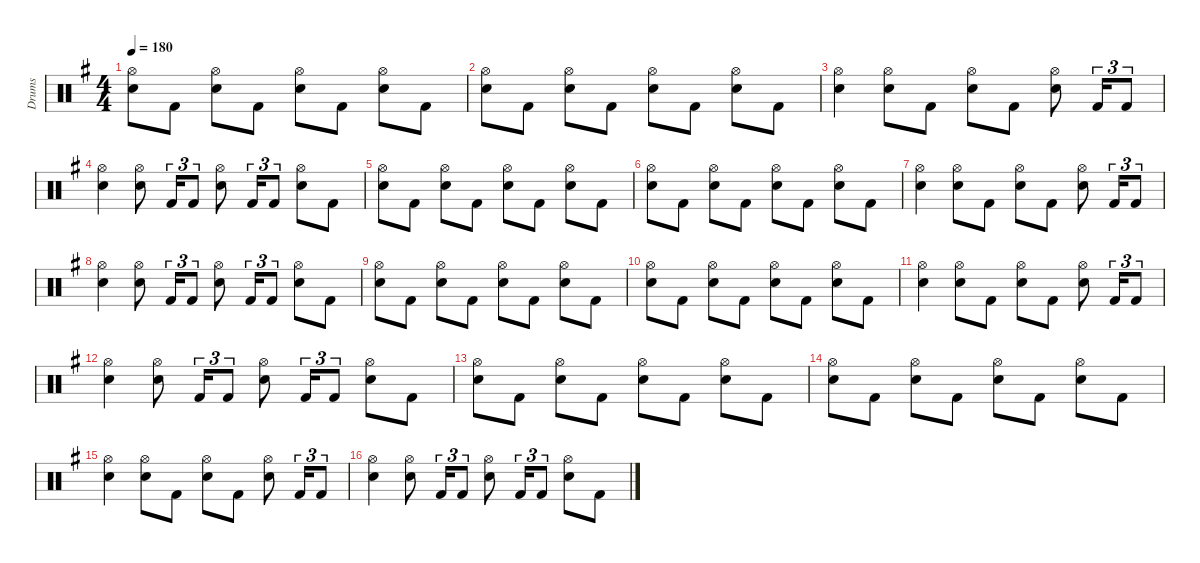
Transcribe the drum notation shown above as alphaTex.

\defaultSystemsLayout 4
\hideDynamics
\bracketExtendMode nobrackets
\firstSystemTrackNameMode fullname
\otherSystemsTrackNameOrientation horizontal
\track ("Drums" "drm.") {instrument percussion}
\staff {score}
\articulation defaults
\ts (4 4)
\tempo 180
\clef neutral
\ks g
("Hi-Hat (open)"{acc forcenatural} "Snare (hit) 2"{acc forcenatural}).8{dy f beam Down} "Kick (hit) 2"{acc forcenatural}.8{beam Down} ("Hi-Hat (open)"{acc forcenatural} "Snare (hit) 2"{acc forcenatural}).8{beam Down} "Kick (hit) 2"{acc forcenatural}.8{beam Down} ("Hi-Hat (open)"{acc forcenatural} "Snare (hit) 2"{acc forcenatural}).8{beam Down} "Kick (hit) 2"{acc forcenatural}.8{beam Down} ("Hi-Hat (open)"{acc forcenatural} "Snare (hit) 2"{acc forcenatural}).8{beam Down} "Kick (hit) 2"{acc forcenatural}.8{beam Down} |
("Hi-Hat (open)"{acc forcenatural} "Snare (hit) 2"{acc forcenatural}).8{beam Down} "Kick (hit) 2"{acc forcenatural}.8{beam Down} ("Hi-Hat (open)"{acc forcenatural} "Snare (hit) 2"{acc forcenatural}).8{beam Down} "Kick (hit) 2"{acc forcenatural}.8{beam Down} ("Hi-Hat (open)"{acc forcenatural} "Snare (hit) 2"{acc forcenatural}).8{beam Down} "Kick (hit) 2"{acc forcenatural}.8{beam Down} ("Hi-Hat (open)"{acc forcenatural} "Snare (hit) 2"{acc forcenatural}).8{beam Down} "Kick (hit) 2"{acc forcenatural}.8{beam Down} |
("Hi-Hat (open)"{acc forcenatural} "Snare (hit) 2"{acc forcenatural}).4{beam Down} ("Hi-Hat (open)"{acc forcenatural} "Snare (hit) 2"{acc forcenatural}).8{beam Down} "Kick (hit) 2"{acc forcenatural}.8{beam Down} ("Hi-Hat (open)"{acc forcenatural} "Snare (hit) 2"{acc forcenatural}).8{beam Down} "Kick (hit) 2"{acc forcenatural}.8{beam Down} ("Hi-Hat (open)"{acc forcenatural} "Snare (hit) 2"{acc forcenatural}).8{beam Down} "Kick (hit) 2"{acc forcenatural}.16{tu (3 2) beam Up} "Kick (hit) 2"{acc forcenatural}.8{tu (3 2) beam Up} |
("Hi-Hat (open)"{acc forcenatural} "Snare (hit) 2"{acc forcenatural}).4{beam Down} ("Hi-Hat (open)"{acc forcenatural} "Snare (hit) 2"{acc forcenatural}).8{beam Down} "Kick (hit) 2"{acc forcenatural}.16{tu (3 2) beam Up} "Kick (hit) 2"{acc forcenatural}.8{tu (3 2) beam Up} ("Hi-Hat (open)"{acc forcenatural} "Snare (hit) 2"{acc forcenatural}).8{beam Down} "Kick (hit) 2"{acc forcenatural}.16{tu (3 2) beam Up} "Kick (hit) 2"{acc forcenatural}.8{tu (3 2) beam Up} ("Hi-Hat (open)"{acc forcenatural} "Snare (hit) 2"{acc forcenatural}).8{beam Down} "Kick (hit) 2"{acc forcenatural}.8{beam Down} |
("Hi-Hat (open)"{acc forcenatural} "Snare (hit) 2"{acc forcenatural}).8{beam Down} "Kick (hit) 2"{acc forcenatural}.8{beam Down} ("Hi-Hat (open)"{acc forcenatural} "Snare (hit) 2"{acc forcenatural}).8{beam Down} "Kick (hit) 2"{acc forcenatural}.8{beam Down} ("Hi-Hat (open)"{acc forcenatural} "Snare (hit) 2"{acc forcenatural}).8{beam Down} "Kick (hit) 2"{acc forcenatural}.8{beam Down} ("Hi-Hat (open)"{acc forcenatural} "Snare (hit) 2"{acc forcenatural}).8{beam Down} "Kick (hit) 2"{acc forcenatural}.8{beam Down} |
("Hi-Hat (open)"{acc forcenatural} "Snare (hit) 2"{acc forcenatural}).8{beam Down} "Kick (hit) 2"{acc forcenatural}.8{beam Down} ("Hi-Hat (open)"{acc forcenatural} "Snare (hit) 2"{acc forcenatural}).8{beam Down} "Kick (hit) 2"{acc forcenatural}.8{beam Down} ("Hi-Hat (open)"{acc forcenatural} "Snare (hit) 2"{acc forcenatural}).8{beam Down} "Kick (hit) 2"{acc forcenatural}.8{beam Down} ("Hi-Hat (open)"{acc forcenatural} "Snare (hit) 2"{acc forcenatural}).8{beam Down} "Kick (hit) 2"{acc forcenatural}.8{beam Down} |
("Hi-Hat (open)"{acc forcenatural} "Snare (hit) 2"{acc forcenatural}).4{beam Down} ("Hi-Hat (open)"{acc forcenatural} "Snare (hit) 2"{acc forcenatural}).8{beam Down} "Kick (hit) 2"{acc forcenatural}.8{beam Down} ("Hi-Hat (open)"{acc forcenatural} "Snare (hit) 2"{acc forcenatural}).8{beam Down} "Kick (hit) 2"{acc forcenatural}.8{beam Down} ("Hi-Hat (open)"{acc forcenatural} "Snare (hit) 2"{acc forcenatural}).8{beam Down} "Kick (hit) 2"{acc forcenatural}.16{tu (3 2) beam Up} "Kick (hit) 2"{acc forcenatural}.8{tu (3 2) beam Up} |
("Hi-Hat (open)"{acc forcenatural} "Snare (hit) 2"{acc forcenatural}).4{beam Down} ("Hi-Hat (open)"{acc forcenatural} "Snare (hit) 2"{acc forcenatural}).8{beam Down} "Kick (hit) 2"{acc forcenatural}.16{tu (3 2) beam Up} "Kick (hit) 2"{acc forcenatural}.8{tu (3 2) beam Up} ("Hi-Hat (open)"{acc forcenatural} "Snare (hit) 2"{acc forcenatural}).8{beam Down} "Kick (hit) 2"{acc forcenatural}.16{tu (3 2) beam Up} "Kick (hit) 2"{acc forcenatural}.8{tu (3 2) beam Up} ("Hi-Hat (open)"{acc forcenatural} "Snare (hit) 2"{acc forcenatural}).8{beam Down} "Kick (hit) 2"{acc forcenatural}.8{beam Down} |
("Hi-Hat (open)"{acc forcenatural} "Snare (hit) 2"{acc forcenatural}).8{beam Down} "Kick (hit) 2"{acc forcenatural}.8{beam Down} ("Hi-Hat (open)"{acc forcenatural} "Snare (hit) 2"{acc forcenatural}).8{beam Down} "Kick (hit) 2"{acc forcenatural}.8{beam Down} ("Hi-Hat (open)"{acc forcenatural} "Snare (hit) 2"{acc forcenatural}).8{beam Down} "Kick (hit) 2"{acc forcenatural}.8{beam Down} ("Hi-Hat (open)"{acc forcenatural} "Snare (hit) 2"{acc forcenatural}).8{beam Down} "Kick (hit) 2"{acc forcenatural}.8{beam Down} |
("Hi-Hat (open)"{acc forcenatural} "Snare (hit) 2"{acc forcenatural}).8{beam Down} "Kick (hit) 2"{acc forcenatural}.8{beam Down} ("Hi-Hat (open)"{acc forcenatural} "Snare (hit) 2"{acc forcenatural}).8{beam Down} "Kick (hit) 2"{acc forcenatural}.8{beam Down} ("Hi-Hat (open)"{acc forcenatural} "Snare (hit) 2"{acc forcenatural}).8{beam Down} "Kick (hit) 2"{acc forcenatural}.8{beam Down} ("Hi-Hat (open)"{acc forcenatural} "Snare (hit) 2"{acc forcenatural}).8{beam Down} "Kick (hit) 2"{acc forcenatural}.8{beam Down} |
("Hi-Hat (open)"{acc forcenatural} "Snare (hit) 2"{acc forcenatural}).4{beam Down} ("Hi-Hat (open)"{acc forcenatural} "Snare (hit) 2"{acc forcenatural}).8{beam Down} "Kick (hit) 2"{acc forcenatural}.8{beam Down} ("Hi-Hat (open)"{acc forcenatural} "Snare (hit) 2"{acc forcenatural}).8{beam Down} "Kick (hit) 2"{acc forcenatural}.8{beam Down} ("Hi-Hat (open)"{acc forcenatural} "Snare (hit) 2"{acc forcenatural}).8{beam Down} "Kick (hit) 2"{acc forcenatural}.16{tu (3 2) beam Up} "Kick (hit) 2"{acc forcenatural}.8{tu (3 2) beam Up} |
("Hi-Hat (open)"{acc forcenatural} "Snare (hit) 2"{acc forcenatural}).4{beam Down} ("Hi-Hat (open)"{acc forcenatural} "Snare (hit) 2"{acc forcenatural}).8{beam Down} "Kick (hit) 2"{acc forcenatural}.16{tu (3 2) beam Up} "Kick (hit) 2"{acc forcenatural}.8{tu (3 2) beam Up} ("Hi-Hat (open)"{acc forcenatural} "Snare (hit) 2"{acc forcenatural}).8{beam Down} "Kick (hit) 2"{acc forcenatural}.16{tu (3 2) beam Up} "Kick (hit) 2"{acc forcenatural}.8{tu (3 2) beam Up} ("Hi-Hat (open)"{acc forcenatural} "Snare (hit) 2"{acc forcenatural}).8{beam Down} "Kick (hit) 2"{acc forcenatural}.8{beam Down} |
("Hi-Hat (open)"{acc forcenatural} "Snare (hit) 2"{acc forcenatural}).8{beam Down} "Kick (hit) 2"{acc forcenatural}.8{beam Down} ("Hi-Hat (open)"{acc forcenatural} "Snare (hit) 2"{acc forcenatural}).8{beam Down} "Kick (hit) 2"{acc forcenatural}.8{beam Down} ("Hi-Hat (open)"{acc forcenatural} "Snare (hit) 2"{acc forcenatural}).8{beam Down} "Kick (hit) 2"{acc forcenatural}.8{beam Down} ("Hi-Hat (open)"{acc forcenatural} "Snare (hit) 2"{acc forcenatural}).8{beam Down} "Kick (hit) 2"{acc forcenatural}.8{beam Down} |
("Hi-Hat (open)"{acc forcenatural} "Snare (hit) 2"{acc forcenatural}).8{beam Down} "Kick (hit) 2"{acc forcenatural}.8{beam Down} ("Hi-Hat (open)"{acc forcenatural} "Snare (hit) 2"{acc forcenatural}).8{beam Down} "Kick (hit) 2"{acc forcenatural}.8{beam Down} ("Hi-Hat (open)"{acc forcenatural} "Snare (hit) 2"{acc forcenatural}).8{beam Down} "Kick (hit) 2"{acc forcenatural}.8{beam Down} ("Hi-Hat (open)"{acc forcenatural} "Snare (hit) 2"{acc forcenatural}).8{beam Down} "Kick (hit) 2"{acc forcenatural}.8{beam Down} |
("Hi-Hat (open)"{acc forcenatural} "Snare (hit) 2"{acc forcenatural}).4{beam Down} ("Hi-Hat (open)"{acc forcenatural} "Snare (hit) 2"{acc forcenatural}).8{beam Down} "Kick (hit) 2"{acc forcenatural}.8{beam Down} ("Hi-Hat (open)"{acc forcenatural} "Snare (hit) 2"{acc forcenatural}).8{beam Down} "Kick (hit) 2"{acc forcenatural}.8{beam Down} ("Hi-Hat (open)"{acc forcenatural} "Snare (hit) 2"{acc forcenatural}).8{beam Down} "Kick (hit) 2"{acc forcenatural}.16{tu (3 2) beam Up} "Kick (hit) 2"{acc forcenatural}.8{tu (3 2) beam Up} |
("Hi-Hat (open)"{acc forcenatural} "Snare (hit) 2"{acc forcenatural}).4{beam Down} ("Hi-Hat (open)"{acc forcenatural} "Snare (hit) 2"{acc forcenatural}).8{beam Down} "Kick (hit) 2"{acc forcenatural}.16{tu (3 2) beam Up} "Kick (hit) 2"{acc forcenatural}.8{tu (3 2) beam Up} ("Hi-Hat (open)"{acc forcenatural} "Snare (hit) 2"{acc forcenatural}).8{beam Down} "Kick (hit) 2"{acc forcenatural}.16{tu (3 2) beam Up} "Kick (hit) 2"{acc forcenatural}.8{tu (3 2) beam Up} ("Hi-Hat (open)"{acc forcenatural} "Snare (hit) 2"{acc forcenatural}).8{beam Down} "Kick (hit) 2"{acc forcenatural}.8{beam Down}
